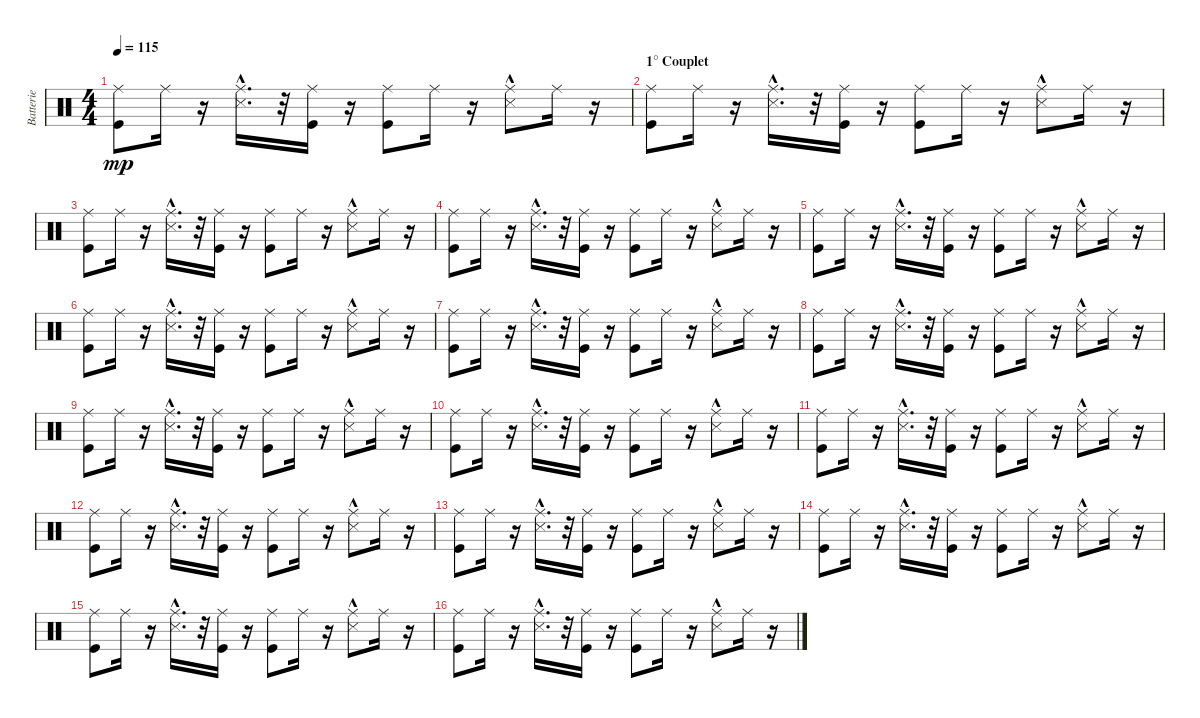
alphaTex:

\track ("Batterie" "Batterie") {instrument percussion}
\staff {score}
\articulation defaults
\ts (4 4)
\tempo 115
\clef neutral
\ks c
("Kick (hit)" "Ride (middle)").8{dy mp} "Ride (middle)".16 r.16 ("Snare (side stick) 3"{hac} "Ride (middle)").16{d} r.32 ("Ride (middle)" "Kick (hit)").16 r.16 ("Ride (middle)" "Kick (hit)").8 "Ride (middle)".16 r.16 ("Snare (side stick) 3"{hac} "Ride (middle)").8 "Ride (middle)".16 r.16 |
\section ("" "1° Couplet")
("Kick (hit)" "Ride (middle)").8 "Ride (middle)".16 r.16 ("Snare (side stick) 3"{hac} "Ride (middle)").16{d} r.32 ("Ride (middle)" "Kick (hit)").16 r.16 ("Ride (middle)" "Kick (hit)").8 "Ride (middle)".16 r.16 ("Snare (side stick) 3"{hac} "Ride (middle)").8 "Ride (middle)".16 r.16 |
("Kick (hit)" "Ride (middle)").8 "Ride (middle)".16 r.16 ("Snare (side stick) 3"{hac} "Ride (middle)").16{d} r.32 ("Ride (middle)" "Kick (hit)").16 r.16 ("Ride (middle)" "Kick (hit)").8 "Ride (middle)".16 r.16 ("Snare (side stick) 3"{hac} "Ride (middle)").8 "Ride (middle)".16 r.16 |
("Kick (hit)" "Ride (middle)").8 "Ride (middle)".16 r.16 ("Snare (side stick) 3"{hac} "Ride (middle)").16{d} r.32 ("Ride (middle)" "Kick (hit)").16 r.16 ("Ride (middle)" "Kick (hit)").8 "Ride (middle)".16 r.16 ("Snare (side stick) 3"{hac} "Ride (middle)").8 "Ride (middle)".16 r.16 |
("Kick (hit)" "Ride (middle)").8 "Ride (middle)".16 r.16 ("Snare (side stick) 3"{hac} "Ride (middle)").16{d} r.32 ("Ride (middle)" "Kick (hit)").16 r.16 ("Ride (middle)" "Kick (hit)").8 "Ride (middle)".16 r.16 ("Snare (side stick) 3"{hac} "Ride (middle)").8 "Ride (middle)".16 r.16 |
("Kick (hit)" "Ride (middle)").8 "Ride (middle)".16 r.16 ("Snare (side stick) 3"{hac} "Ride (middle)").16{d} r.32 ("Ride (middle)" "Kick (hit)").16 r.16 ("Ride (middle)" "Kick (hit)").8 "Ride (middle)".16 r.16 ("Snare (side stick) 3"{hac} "Ride (middle)").8 "Ride (middle)".16 r.16 |
("Kick (hit)" "Ride (middle)").8 "Ride (middle)".16 r.16 ("Snare (side stick) 3"{hac} "Ride (middle)").16{d} r.32 ("Ride (middle)" "Kick (hit)").16 r.16 ("Ride (middle)" "Kick (hit)").8 "Ride (middle)".16 r.16 ("Snare (side stick) 3"{hac} "Ride (middle)").8 "Ride (middle)".16 r.16 |
("Kick (hit)" "Ride (middle)").8 "Ride (middle)".16 r.16 ("Snare (side stick) 3"{hac} "Ride (middle)").16{d} r.32 ("Ride (middle)" "Kick (hit)").16 r.16 ("Ride (middle)" "Kick (hit)").8 "Ride (middle)".16 r.16 ("Snare (side stick) 3"{hac} "Ride (middle)").8 "Ride (middle)".16 r.16 |
("Kick (hit)" "Ride (middle)").8 "Ride (middle)".16 r.16 ("Snare (side stick) 3"{hac} "Ride (middle)").16{d} r.32 ("Ride (middle)" "Kick (hit)").16 r.16 ("Ride (middle)" "Kick (hit)").8 "Ride (middle)".16 r.16 ("Snare (side stick) 3"{hac} "Ride (middle)").8 "Ride (middle)".16 r.16 |
("Kick (hit)" "Ride (middle)").8 "Ride (middle)".16 r.16 ("Snare (side stick) 3"{hac} "Ride (middle)").16{d} r.32 ("Ride (middle)" "Kick (hit)").16 r.16 ("Ride (middle)" "Kick (hit)").8 "Ride (middle)".16 r.16 ("Snare (side stick) 3"{hac} "Ride (middle)").8 "Ride (middle)".16 r.16 |
("Kick (hit)" "Ride (middle)").8 "Ride (middle)".16 r.16 ("Snare (side stick) 3"{hac} "Ride (middle)").16{d} r.32 ("Ride (middle)" "Kick (hit)").16 r.16 ("Ride (middle)" "Kick (hit)").8 "Ride (middle)".16 r.16 ("Snare (side stick) 3"{hac} "Ride (middle)").8 "Ride (middle)".16 r.16 |
("Kick (hit)" "Ride (middle)").8 "Ride (middle)".16 r.16 ("Snare (side stick) 3"{hac} "Ride (middle)").16{d} r.32 ("Ride (middle)" "Kick (hit)").16 r.16 ("Ride (middle)" "Kick (hit)").8 "Ride (middle)".16 r.16 ("Snare (side stick) 3"{hac} "Ride (middle)").8 "Ride (middle)".16 r.16 |
("Kick (hit)" "Ride (middle)").8 "Ride (middle)".16 r.16 ("Snare (side stick) 3"{hac} "Ride (middle)").16{d} r.32 ("Ride (middle)" "Kick (hit)").16 r.16 ("Ride (middle)" "Kick (hit)").8 "Ride (middle)".16 r.16 ("Snare (side stick) 3"{hac} "Ride (middle)").8 "Ride (middle)".16 r.16 |
("Kick (hit)" "Ride (middle)").8 "Ride (middle)".16 r.16 ("Snare (side stick) 3"{hac} "Ride (middle)").16{d} r.32 ("Ride (middle)" "Kick (hit)").16 r.16 ("Ride (middle)" "Kick (hit)").8 "Ride (middle)".16 r.16 ("Snare (side stick) 3"{hac} "Ride (middle)").8 "Ride (middle)".16 r.16 |
("Kick (hit)" "Ride (middle)").8 "Ride (middle)".16 r.16 ("Snare (side stick) 3"{hac} "Ride (middle)").16{d} r.32 ("Ride (middle)" "Kick (hit)").16 r.16 ("Ride (middle)" "Kick (hit)").8 "Ride (middle)".16 r.16 ("Snare (side stick) 3"{hac} "Ride (middle)").8 "Ride (middle)".16 r.16 |
("Kick (hit)" "Ride (middle)").8 "Ride (middle)".16 r.16 ("Snare (side stick) 3"{hac} "Ride (middle)").16{d} r.32 ("Ride (middle)" "Kick (hit)").16 r.16 ("Ride (middle)" "Kick (hit)").8 "Ride (middle)".16 r.16 ("Snare (side stick) 3"{hac} "Ride (middle)").8 "Ride (middle)".16 r.16
